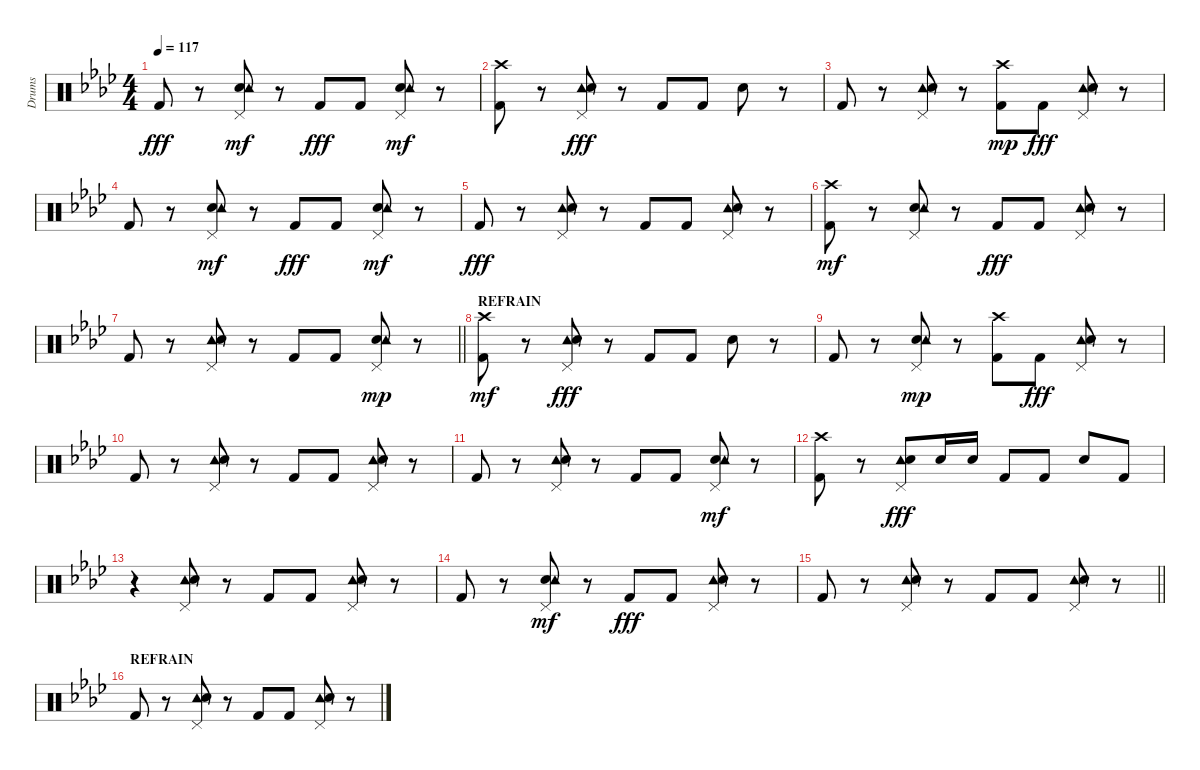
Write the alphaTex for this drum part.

\track ("Drums" "Drums") {instrument percussion}
\staff {score}
\articulation defaults
\ts (4 4)
\tempo 117
\clef neutral
\ks ab "Kick (hit) 2".8{dy fff}
r.8 ("Snare (hit) 2" "Tambourine (hit)" "Pedal Hi-Hat (hit)").8{dy mf} r.8 "Kick (hit) 2".8{dy fff} "Kick (hit) 2".8 ("Snare (hit) 2" "Tambourine (hit)" "Pedal Hi-Hat (hit)").8{dy mf} r.8 |
("Kick (hit) 2" "Crash high (hit)").8 r.8 ("Tambourine (hit)" "Pedal Hi-Hat (hit)" "Snare (hit) 2").8{dy fff} r.8 "Kick (hit) 2".8 "Kick (hit) 2".8 "Snare (hit) 2".8 r.8 |
"Kick (hit) 2".8 r.8 ("Tambourine (hit)" "Pedal Hi-Hat (hit)" "Snare (hit) 2").8 r.8 ("Kick (hit) 2" "Crash high (hit)").8{dy mp} "Kick (hit) 2".8{dy fff} ("Tambourine (hit)" "Pedal Hi-Hat (hit)" "Snare (hit) 2").8 r.8 |
"Kick (hit) 2".8 r.8 ("Snare (hit) 2" "Tambourine (hit)" "Pedal Hi-Hat (hit)").8{dy mf} r.8 "Kick (hit) 2".8{dy fff} "Kick (hit) 2".8 ("Snare (hit) 2" "Tambourine (hit)" "Pedal Hi-Hat (hit)").8{dy mf} r.8 |
"Kick (hit) 2".8{dy fff} r.8 ("Tambourine (hit)" "Pedal Hi-Hat (hit)" "Snare (hit) 2").8 r.8 "Kick (hit) 2".8 "Kick (hit) 2".8 ("Tambourine (hit)" "Pedal Hi-Hat (hit)" "Snare (hit) 2").8 r.8 |
("Kick (hit) 2" "Crash high (hit)").8{dy mf} r.8 ("Snare (hit) 2" "Tambourine (hit)" "Pedal Hi-Hat (hit)").8 r.8 "Kick (hit) 2".8{dy fff} "Kick (hit) 2".8 ("Tambourine (hit)" "Pedal Hi-Hat (hit)" "Snare (hit) 2").8 r.8 |
\barLineRight lightlight "Kick (hit) 2".8
r.8 ("Tambourine (hit)" "Pedal Hi-Hat (hit)" "Snare (hit) 2").8 r.8 "Kick (hit) 2".8 "Kick (hit) 2".8 ("Pedal Hi-Hat (hit)" "Snare (hit) 2" "Tambourine (hit)").8{dy mp} r.8 |
\section ("" "REFRAIN")
("Kick (hit) 2" "Crash high (hit)").8{dy mf} r.8 ("Tambourine (hit)" "Pedal Hi-Hat (hit)" "Snare (hit) 2").8{dy fff} r.8 "Kick (hit) 2".8 "Kick (hit) 2".8 "Snare (hit) 2".8 r.8 |
"Kick (hit) 2".8 r.8 ("Pedal Hi-Hat (hit)" "Snare (hit) 2" "Tambourine (hit)").8{dy mp} r.8 ("Kick (hit) 2" "Crash high (hit)").8 "Kick (hit) 2".8{dy fff} ("Tambourine (hit)" "Pedal Hi-Hat (hit)" "Snare (hit) 2").8 r.8 |
"Kick (hit) 2".8 r.8 ("Tambourine (hit)" "Pedal Hi-Hat (hit)" "Snare (hit) 2").8 r.8 "Kick (hit) 2".8 "Kick (hit) 2".8 ("Tambourine (hit)" "Pedal Hi-Hat (hit)" "Snare (hit) 2").8 r.8 |
"Kick (hit) 2".8 r.8 ("Tambourine (hit)" "Pedal Hi-Hat (hit)" "Snare (hit) 2").8 r.8 "Kick (hit) 2".8 "Kick (hit) 2".8 ("Snare (hit) 2" "Tambourine (hit)" "Pedal Hi-Hat (hit)").8{dy mf} r.8 |
("Kick (hit) 2" "Crash high (hit)").8 r.8 ("Tambourine (hit)" "Pedal Hi-Hat (hit)" "Snare (hit) 2").8{dy fff} "Snare (hit) 2".16 "Snare (hit) 2".16 "Kick (hit) 2".8 "Kick (hit) 2".8 "Snare (hit) 2".8 "Kick (hit) 2".8 |
r.4 ("Tambourine (hit)" "Pedal Hi-Hat (hit)" "Snare (hit) 2").8 r.8 "Kick (hit) 2".8 "Kick (hit) 2".8 ("Tambourine (hit)" "Pedal Hi-Hat (hit)" "Snare (hit) 2").8 r.8 |
"Kick (hit) 2".8 r.8 ("Snare (hit) 2" "Tambourine (hit)" "Pedal Hi-Hat (hit)").8{dy mf} r.8 "Kick (hit) 2".8{dy fff} "Kick (hit) 2".8 ("Tambourine (hit)" "Pedal Hi-Hat (hit)" "Snare (hit) 2").8 r.8 |
\barLineRight lightlight "Kick (hit) 2".8
r.8 ("Tambourine (hit)" "Pedal Hi-Hat (hit)" "Snare (hit) 2").8 r.8 "Kick (hit) 2".8 "Kick (hit) 2".8 ("Tambourine (hit)" "Pedal Hi-Hat (hit)" "Snare (hit) 2").8 r.8 |
\section ("" "REFRAIN")
"Kick (hit) 2".8 r.8 ("Tambourine (hit)" "Pedal Hi-Hat (hit)" "Snare (hit) 2").8 r.8 "Kick (hit) 2".8 "Kick (hit) 2".8 ("Tambourine (hit)" "Pedal Hi-Hat (hit)" "Snare (hit) 2").8 r.8
